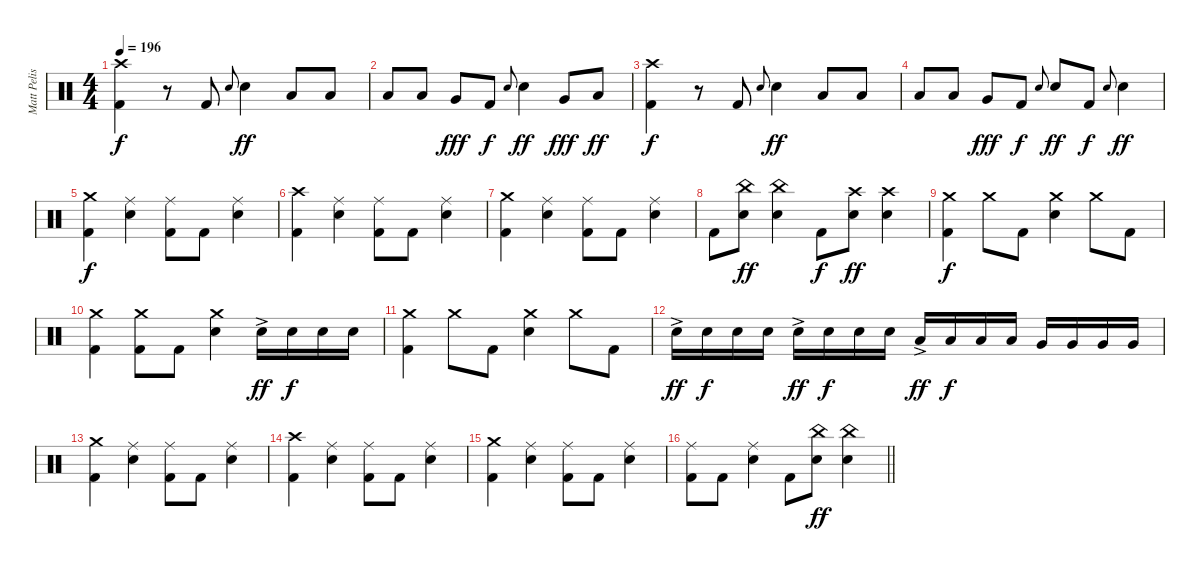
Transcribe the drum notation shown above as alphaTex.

\track ("Matt Pelissier" "Matt Pelis") {instrument percussion}
\staff {score}
\articulation defaults
\ts (4 4)
\tempo 196
\clef neutral
\ks c
("Crash high (hit)" "Kick (hit) 2").4{dy f} r.8 "Kick (hit) 2".8 "Snare (hit) 2".8{gr onbeat} "Snare (hit) 2".4{dy ff} "Low Tom (hit)".8 "Low Tom (hit)".8 |
"Low Tom (hit)".8 "Low Tom (hit)".8 "Very Low Tom (hit)".8{dy fff} "Kick (hit) 2".8{dy f} "Snare (hit) 2".8{gr onbeat} "Snare (hit) 2".4{dy ff} "Very Low Tom (hit)".8{dy fff} "Low Tom (hit)".8{dy ff} |
("Crash high (hit)" "Kick (hit) 2").4{dy f} r.8 "Kick (hit) 2".8 "Snare (hit) 2".8{gr onbeat} "Snare (hit) 2".4{dy ff} "Low Tom (hit)".8 "Low Tom (hit)".8 |
"Low Tom (hit)".8 "Low Tom (hit)".8 "Very Low Tom (hit)".8{dy fff} "Kick (hit) 2".8{dy f} "Snare (hit) 2".8{gr onbeat} "Snare (hit) 2".8{dy ff} "Kick (hit) 2".8{dy f} "Snare (hit) 2".8{gr onbeat} "Snare (hit) 2".4{dy ff} |
("Crash medium (hit)" "Kick (hit) 2").4{dy f} ("Ride (middle)" "Snare (hit) 2").4 ("Ride (middle)" "Kick (hit) 2").8 "Kick (hit) 2".8 ("Ride (middle)" "Snare (hit) 2").4 |
("Crash high (hit)" "Kick (hit) 2").4 ("Ride (middle)" "Snare (hit) 2").4 ("Ride (middle)" "Kick (hit) 2").8 "Kick (hit) 2".8 ("Ride (middle)" "Snare (hit) 2").4 |
("Crash medium (hit)" "Kick (hit) 2").4 ("Ride (middle)" "Snare (hit) 2").4 ("Ride (middle)" "Kick (hit) 2").8 "Kick (hit) 2".8 ("Ride (middle)" "Snare (hit) 2").4 |
"Kick (hit) 2".8 ("China (hit)" "Snare (hit) 2").8{dy ff} ("China (hit)" "Snare (hit) 2").4 "Kick (hit) 2".8{dy f} ("Crash high (hit)" "Snare (hit) 2").8{dy ff} ("Crash high (hit)" "Snare (hit) 2").4 |
("Crash medium (hit)" "Kick (hit) 2").4{dy f} "Crash medium (hit)".8 "Kick (hit) 2".8 ("Crash medium (hit)" "Snare (hit) 2").4 "Crash medium (hit)".8 "Kick (hit) 2".8 |
("Crash medium (hit)" "Kick (hit) 2").4 ("Crash medium (hit)" "Kick (hit) 2").8 "Kick (hit) 2".8 ("Crash medium (hit)" "Snare (hit) 2").4 "Snare (hit) 2"{ac}.16{dy ff} "Snare (hit) 2".16{dy f} "Snare (hit) 2".16 "Snare (hit) 2".16 |
("Crash medium (hit)" "Kick (hit) 2").4 "Crash medium (hit)".8 "Kick (hit) 2".8 ("Crash medium (hit)" "Snare (hit) 2").4 "Crash medium (hit)".8 "Kick (hit) 2".8 |
"Snare (hit) 2"{ac}.16{dy ff} "Snare (hit) 2".16{dy f} "Snare (hit) 2".16 "Snare (hit) 2".16 "Snare (hit) 2"{ac}.16{dy ff} "Snare (hit) 2".16{dy f} "Snare (hit) 2".16 "Snare (hit) 2".16 "Low Tom (hit)"{ac}.16{dy ff} "Low Tom (hit)".16{dy f} "Low Tom (hit)".16 "Low Tom (hit)".16 "Very Low Tom (hit)".16 "Very Low Tom (hit)".16 "Very Low Tom (hit)".16 "Very Low Tom (hit)".16 |
("Crash medium (hit)" "Kick (hit) 2").4 ("Ride (middle)" "Snare (hit) 2").4 ("Ride (middle)" "Kick (hit) 2").8 "Kick (hit) 2".8 ("Ride (middle)" "Snare (hit) 2").4 |
("Crash high (hit)" "Kick (hit) 2").4 ("Ride (middle)" "Snare (hit) 2").4 ("Ride (middle)" "Kick (hit) 2").8 "Kick (hit) 2".8 ("Ride (middle)" "Snare (hit) 2").4 |
("Crash medium (hit)" "Kick (hit) 2").4 ("Ride (middle)" "Snare (hit) 2").4 ("Ride (middle)" "Kick (hit) 2").8 "Kick (hit) 2".8 ("Ride (middle)" "Snare (hit) 2").4 |
\barLineRight lightlight
("Ride (middle)" "Kick (hit) 2").8 "Kick (hit) 2".8 ("Ride (middle)" "Snare (hit) 2").4 "Kick (hit) 2".8 ("China (hit)" "Snare (hit) 2").8{dy ff} ("China (hit)" "Snare (hit) 2").4
